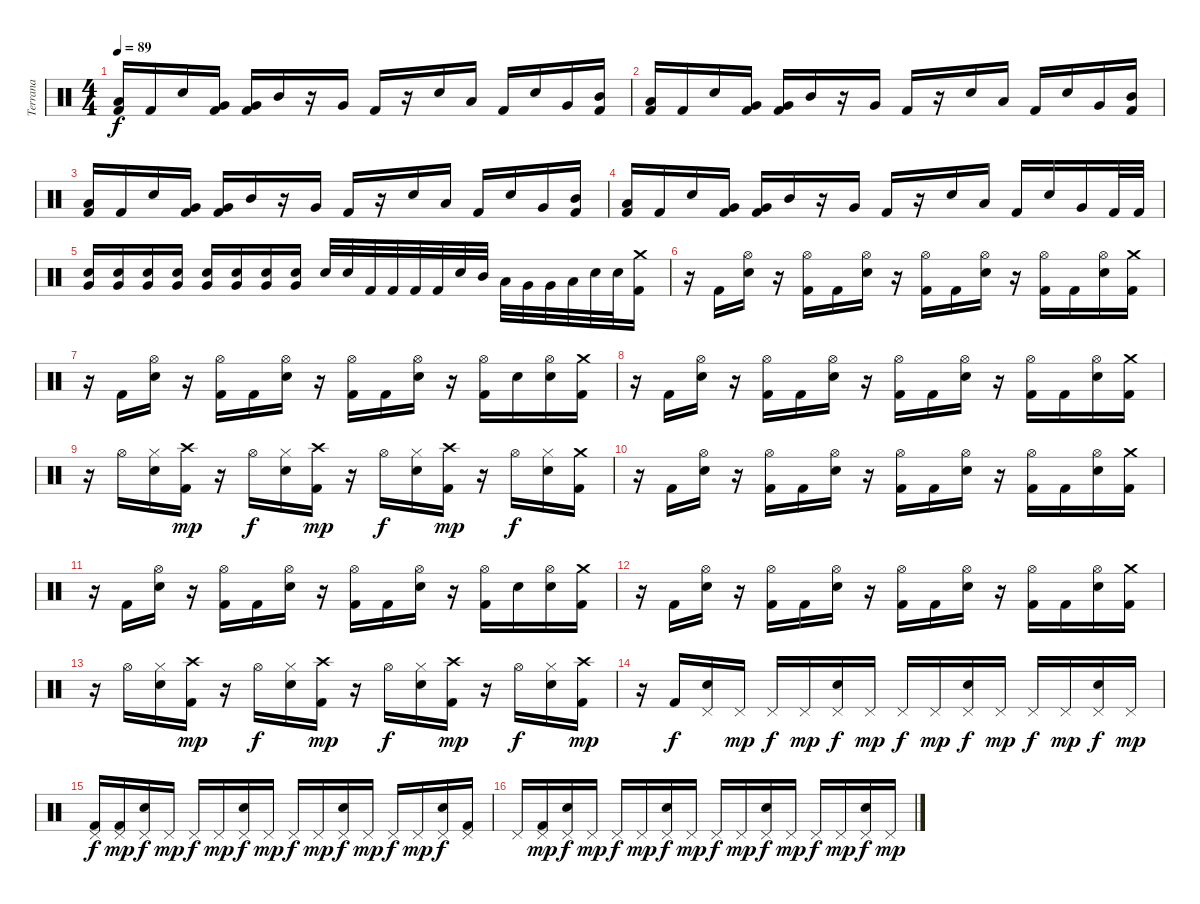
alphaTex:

\track ("Terrana" "Terrana") {instrument percussion}
\staff {score}
\articulation defaults
\ts (4 4)
\tempo 89
\clef neutral
\ks c
("Low Floor Tom (hit)" "Kick (hit) 2").16{dy f} "Kick (hit) 2".16 "Electric Snare (hit)".16 ("Very Low Tom (hit)" "Kick (hit) 2").16 ("Very Low Tom (hit)" "Kick (hit) 2").16 "Mid Tom (hit)".16 r.16 "Very Low Tom (hit)".16 "Kick (hit) 2".16 r.16 "Electric Snare (hit)".16 "Low Floor Tom (hit)".16 "Kick (hit) 2".16 "Electric Snare (hit)".16 "Very Low Tom (hit)".16 ("Mid Tom (hit)" "Kick (hit) 2").16 |
("Low Floor Tom (hit)" "Kick (hit) 2").16 "Kick (hit) 2".16 "Electric Snare (hit)".16 ("Very Low Tom (hit)" "Kick (hit) 2").16 ("Very Low Tom (hit)" "Kick (hit) 2").16 "Mid Tom (hit)".16 r.16 "Very Low Tom (hit)".16 "Kick (hit) 2".16 r.16 "Electric Snare (hit)".16 "Low Floor Tom (hit)".16 "Kick (hit) 2".16 "Electric Snare (hit)".16 "Very Low Tom (hit)".16 ("Mid Tom (hit)" "Kick (hit) 2").16 |
("Low Floor Tom (hit)" "Kick (hit) 2").16 "Kick (hit) 2".16 "Electric Snare (hit)".16 ("Very Low Tom (hit)" "Kick (hit) 2").16 ("Very Low Tom (hit)" "Kick (hit) 2").16 "Mid Tom (hit)".16 r.16 "Very Low Tom (hit)".16 "Kick (hit) 2".16 r.16 "Electric Snare (hit)".16 "Low Floor Tom (hit)".16 "Kick (hit) 2".16 "Electric Snare (hit)".16 "Very Low Tom (hit)".16 ("Mid Tom (hit)" "Kick (hit) 2").16 |
("Low Floor Tom (hit)" "Kick (hit) 2").16 "Kick (hit) 2".16 "Electric Snare (hit)".16 ("Very Low Tom (hit)" "Kick (hit) 2").16 ("Very Low Tom (hit)" "Kick (hit) 2").16 "Mid Tom (hit)".16 r.16 "Very Low Tom (hit)".16 "Kick (hit) 2".16 r.16 "Electric Snare (hit)".16 "Low Floor Tom (hit)".16 "Kick (hit) 2".16 "Electric Snare (hit)".16 "Very Low Tom (hit)".16 "Kick (hit) 2".32 "Kick (hit) 2".32 |
("Electric Snare (hit)" "Very Low Tom (hit)").16 ("Electric Snare (hit)" "Very Low Tom (hit)").16 ("Electric Snare (hit)" "Very Low Tom (hit)").16 ("Electric Snare (hit)" "Very Low Tom (hit)").16 ("Electric Snare (hit)" "Very Low Tom (hit)").16 ("Electric Snare (hit)" "Very Low Tom (hit)").16 ("Electric Snare (hit)" "Very Low Tom (hit)").16 ("Electric Snare (hit)" "Very Low Tom (hit)").16 "Electric Snare (hit)".32 "Electric Snare (hit)".32 "Kick (hit) 2".32 "Kick (hit) 2".32 "Kick (hit) 2".32 "Kick (hit) 2".32 "Electric Snare (hit)".32 "Mid Tom (hit)".32 "Low Tom (hit)".32 "Very Low Tom (hit)".32 "Very Low Tom (hit)".32 "Low Floor Tom (hit)".32 "Electric Snare (hit)".32 "Electric Snare (hit)".32 ("Crash medium (hit)" "Kick (hit) 2").16 |
r.16 "Kick (hit) 2".16 ("Hi-Hat (open)" "Electric Snare (hit)").16 r.16 ("Hi-Hat (open)" "Kick (hit) 2").16 "Kick (hit) 2".16 ("Hi-Hat (open)" "Electric Snare (hit)").16 r.16 ("Hi-Hat (open)" "Kick (hit) 2").16 "Kick (hit) 2".16 ("Hi-Hat (open)" "Electric Snare (hit)").16 r.16 ("Hi-Hat (open)" "Kick (hit) 2").16 "Kick (hit) 2".16 ("Hi-Hat (open)" "Electric Snare (hit)").16 ("Crash medium (hit)" "Kick (hit) 2").16 |
r.16 "Kick (hit) 2".16 ("Hi-Hat (open)" "Electric Snare (hit)").16 r.16 ("Hi-Hat (open)" "Kick (hit) 2").16 "Kick (hit) 2".16 ("Hi-Hat (open)" "Electric Snare (hit)").16 r.16 ("Hi-Hat (open)" "Kick (hit) 2").16 "Kick (hit) 2".16 ("Hi-Hat (open)" "Electric Snare (hit)").16 r.16 ("Hi-Hat (open)" "Kick (hit) 2").16 "Electric Snare (hit)".16 ("Hi-Hat (open)" "Electric Snare (hit)").16 ("Crash medium (hit)" "Kick (hit) 2").16 |
r.16 "Kick (hit) 2".16 ("Hi-Hat (open)" "Electric Snare (hit)").16 r.16 ("Hi-Hat (open)" "Kick (hit) 2").16 "Kick (hit) 2".16 ("Hi-Hat (open)" "Electric Snare (hit)").16 r.16 ("Hi-Hat (open)" "Kick (hit) 2").16 "Kick (hit) 2".16 ("Hi-Hat (open)" "Electric Snare (hit)").16 r.16 ("Hi-Hat (open)" "Kick (hit) 2").16 "Kick (hit) 2".16 ("Hi-Hat (open)" "Electric Snare (hit)").16 ("Crash medium (hit)" "Kick (hit) 2").16 |
r.16 "Hi-Hat (open)".16 ("Hi-Hat (closed)" "Electric Snare (hit)").16 ("Crash high (hit)" "Kick (hit) 2").16{dy mp} r.16 "Hi-Hat (open)".16{dy f} ("Hi-Hat (closed)" "Electric Snare (hit)").16 ("Crash high (hit)" "Kick (hit) 2").16{dy mp} r.16 "Hi-Hat (open)".16{dy f} ("Hi-Hat (closed)" "Electric Snare (hit)").16 ("Crash high (hit)" "Kick (hit) 2").16{dy mp} r.16 "Hi-Hat (open)".16{dy f} ("Hi-Hat (closed)" "Electric Snare (hit)").16 ("Crash medium (hit)" "Kick (hit) 2").16 |
r.16 "Kick (hit) 2".16 ("Hi-Hat (open)" "Electric Snare (hit)").16 r.16 ("Hi-Hat (open)" "Kick (hit) 2").16 "Kick (hit) 2".16 ("Hi-Hat (open)" "Electric Snare (hit)").16 r.16 ("Hi-Hat (open)" "Kick (hit) 2").16 "Kick (hit) 2".16 ("Hi-Hat (open)" "Electric Snare (hit)").16 r.16 ("Hi-Hat (open)" "Kick (hit) 2").16 "Kick (hit) 2".16 ("Hi-Hat (open)" "Electric Snare (hit)").16 ("Crash medium (hit)" "Kick (hit) 2").16 |
r.16 "Kick (hit) 2".16 ("Hi-Hat (open)" "Electric Snare (hit)").16 r.16 ("Hi-Hat (open)" "Kick (hit) 2").16 "Kick (hit) 2".16 ("Hi-Hat (open)" "Electric Snare (hit)").16 r.16 ("Hi-Hat (open)" "Kick (hit) 2").16 "Kick (hit) 2".16 ("Hi-Hat (open)" "Electric Snare (hit)").16 r.16 ("Hi-Hat (open)" "Kick (hit) 2").16 "Electric Snare (hit)".16 ("Hi-Hat (open)" "Electric Snare (hit)").16 ("Crash medium (hit)" "Kick (hit) 2").16 |
r.16 "Kick (hit) 2".16 ("Hi-Hat (open)" "Electric Snare (hit)").16 r.16 ("Hi-Hat (open)" "Kick (hit) 2").16 "Kick (hit) 2".16 ("Hi-Hat (open)" "Electric Snare (hit)").16 r.16 ("Hi-Hat (open)" "Kick (hit) 2").16 "Kick (hit) 2".16 ("Hi-Hat (open)" "Electric Snare (hit)").16 r.16 ("Hi-Hat (open)" "Kick (hit) 2").16 "Kick (hit) 2".16 ("Hi-Hat (open)" "Electric Snare (hit)").16 ("Crash medium (hit)" "Kick (hit) 2").16 |
r.16 "Hi-Hat (open)".16 ("Hi-Hat (closed)" "Electric Snare (hit)").16 ("Crash high (hit)" "Kick (hit) 2").16{dy mp} r.16 "Hi-Hat (open)".16{dy f} ("Hi-Hat (closed)" "Electric Snare (hit)").16 ("Crash high (hit)" "Kick (hit) 2").16{dy mp} r.16 "Hi-Hat (open)".16{dy f} ("Hi-Hat (closed)" "Electric Snare (hit)").16 ("Crash high (hit)" "Kick (hit) 2").16{dy mp} r.16 "Hi-Hat (open)".16{dy f} ("Hi-Hat (closed)" "Electric Snare (hit)").16 ("Crash high (hit)" "Kick (hit) 2").16{dy mp} |
r.16 "Kick (hit) 2".16{dy f} ("Pedal Hi-Hat (hit)" "Electric Snare (hit)").16 "Pedal Hi-Hat (hit)".16{dy mp} "Pedal Hi-Hat (hit)".16{dy f} "Pedal Hi-Hat (hit)".16{dy mp} ("Pedal Hi-Hat (hit)" "Electric Snare (hit)").16{dy f} "Pedal Hi-Hat (hit)".16{dy mp} "Pedal Hi-Hat (hit)".16{dy f} "Pedal Hi-Hat (hit)".16{dy mp} ("Pedal Hi-Hat (hit)" "Electric Snare (hit)").16{dy f} "Pedal Hi-Hat (hit)".16{dy mp} "Pedal Hi-Hat (hit)".16{dy f} "Pedal Hi-Hat (hit)".16{dy mp} ("Pedal Hi-Hat (hit)" "Electric Snare (hit)").16{dy f} "Pedal Hi-Hat (hit)".16{dy mp} |
("Pedal Hi-Hat (hit)" "Kick (hit) 2").16{dy f} ("Pedal Hi-Hat (hit)" "Kick (hit) 2").16{dy mp} ("Pedal Hi-Hat (hit)" "Electric Snare (hit)").16{dy f} "Pedal Hi-Hat (hit)".16{dy mp} "Pedal Hi-Hat (hit)".16{dy f} "Pedal Hi-Hat (hit)".16{dy mp} ("Pedal Hi-Hat (hit)" "Electric Snare (hit)").16{dy f} "Pedal Hi-Hat (hit)".16{dy mp} "Pedal Hi-Hat (hit)".16{dy f} "Pedal Hi-Hat (hit)".16{dy mp} ("Pedal Hi-Hat (hit)" "Electric Snare (hit)").16{dy f} "Pedal Hi-Hat (hit)".16{dy mp} "Pedal Hi-Hat (hit)".16{dy f} "Pedal Hi-Hat (hit)".16{dy mp} ("Pedal Hi-Hat (hit)" "Electric Snare (hit)").16{dy f} ("Pedal Hi-Hat (hit)" "Kick (hit) 2").16 |
"Pedal Hi-Hat (hit)".16 ("Pedal Hi-Hat (hit)" "Kick (hit) 2").16{dy mp} ("Pedal Hi-Hat (hit)" "Electric Snare (hit)").16{dy f} "Pedal Hi-Hat (hit)".16{dy mp} "Pedal Hi-Hat (hit)".16{dy f} "Pedal Hi-Hat (hit)".16{dy mp} ("Pedal Hi-Hat (hit)" "Electric Snare (hit)").16{dy f} "Pedal Hi-Hat (hit)".16{dy mp} "Pedal Hi-Hat (hit)".16{dy f} "Pedal Hi-Hat (hit)".16{dy mp} ("Pedal Hi-Hat (hit)" "Electric Snare (hit)").16{dy f} "Pedal Hi-Hat (hit)".16{dy mp} "Pedal Hi-Hat (hit)".16{dy f} "Pedal Hi-Hat (hit)".16{dy mp} ("Pedal Hi-Hat (hit)" "Electric Snare (hit)").16{dy f} "Pedal Hi-Hat (hit)".16{dy mp}
